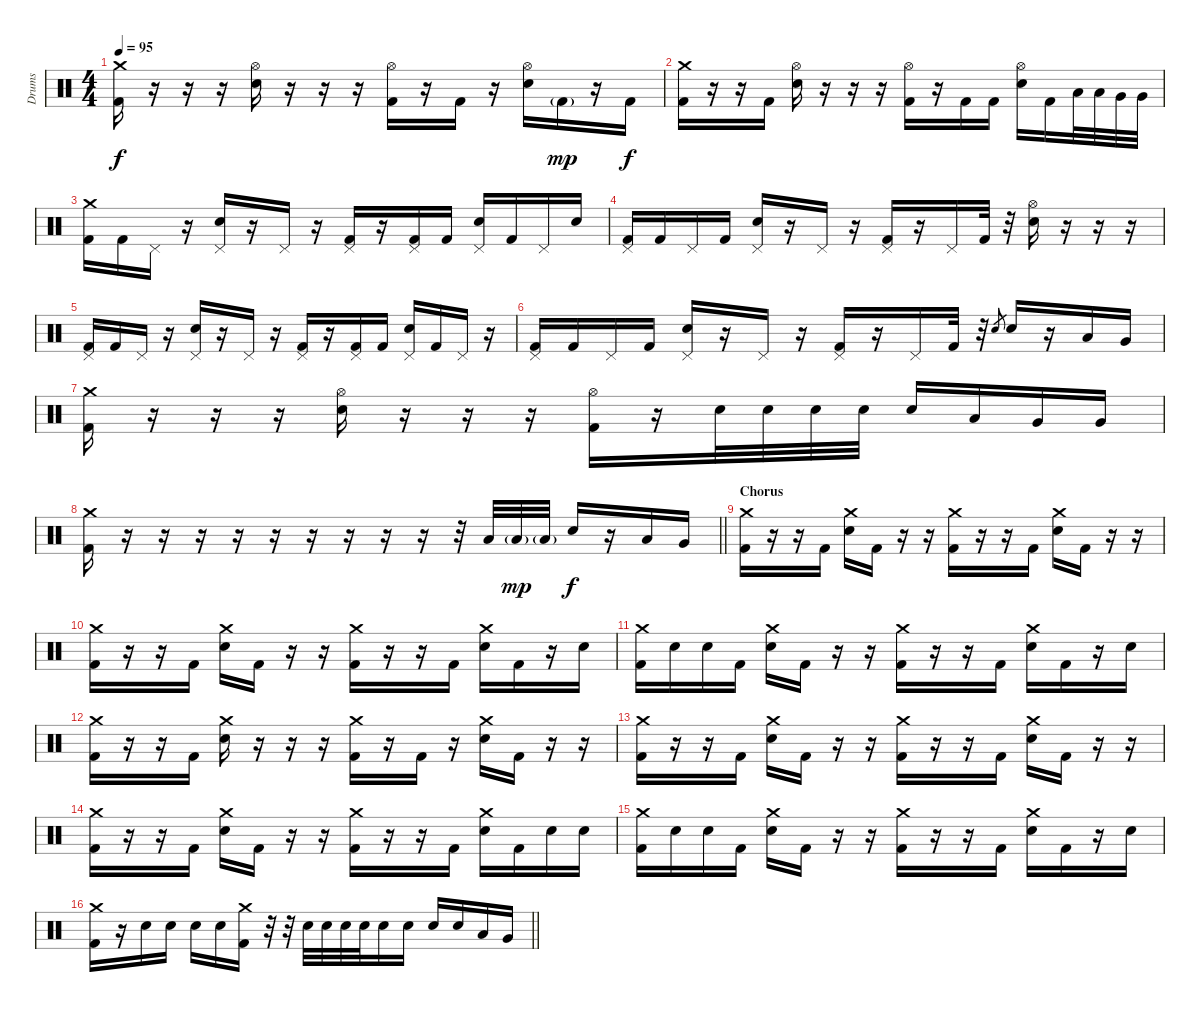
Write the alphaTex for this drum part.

\track ("Drums" "Drums") {instrument percussion}
\staff {score}
\articulation defaults
\ts (4 4)
\tempo 95
\clef neutral
\ks c
("Crash medium (hit)" "Kick (hit) 2").16{dy f} r.16 r.16 r.16 ("Hi-Hat (open)" "Electric Snare (hit)").16 r.16 r.16 r.16 ("Hi-Hat (open)" "Kick (hit) 2").16 r.16 "Kick (hit) 2".16 r.16 ("Hi-Hat (open)" "Electric Snare (hit)").16 "Kick (hit) 2"{g}.16{dy mp} r.16 "Kick (hit) 2".16{dy f} |
("Crash medium (hit)" "Kick (hit) 2").16 r.16 r.16 "Kick (hit) 2".16 ("Hi-Hat (open)" "Electric Snare (hit)").16 r.16 r.16 r.16 ("Hi-Hat (open)" "Kick (hit) 2").16 r.16 "Kick (hit) 2".16 "Kick (hit) 2".16 ("Hi-Hat (open)" "Electric Snare (hit)").16 "Kick (hit) 2".16 "Low Tom (hit)".32 "Low Tom (hit)".32 "Very Low Tom (hit)".32 "Very Low Tom (hit)".32 |
("Crash medium (hit)" "Kick (hit) 2").16 "Kick (hit) 2".16 "Pedal Hi-Hat (hit)".16 r.16 ("Pedal Hi-Hat (hit)" "Electric Snare (hit)").16 r.16 "Pedal Hi-Hat (hit)".16 r.16 ("Pedal Hi-Hat (hit)" "Kick (hit) 2").16 r.16 ("Pedal Hi-Hat (hit)" "Kick (hit) 2").16 "Kick (hit) 2".16 ("Pedal Hi-Hat (hit)" "Electric Snare (hit)").16 "Kick (hit) 2".16 "Pedal Hi-Hat (hit)".16 "Electric Snare (hit)".16 |
("Pedal Hi-Hat (hit)" "Kick (hit) 2").16 "Kick (hit) 2".16 "Pedal Hi-Hat (hit)".16 "Kick (hit) 2".16 ("Pedal Hi-Hat (hit)" "Electric Snare (hit)").16 r.16 "Pedal Hi-Hat (hit)".16 r.16 ("Pedal Hi-Hat (hit)" "Kick (hit) 2").16 r.16 "Pedal Hi-Hat (hit)".16 "Kick (hit) 2".32 r.32 ("Hi-Hat (open)" "Electric Snare (hit)").16 r.16 r.16 r.16 |
("Pedal Hi-Hat (hit)" "Kick (hit) 2").16 "Kick (hit) 2".16 "Pedal Hi-Hat (hit)".16 r.16 ("Pedal Hi-Hat (hit)" "Electric Snare (hit)").16 r.16 "Pedal Hi-Hat (hit)".16 r.16 ("Pedal Hi-Hat (hit)" "Kick (hit) 2").16 r.16 ("Pedal Hi-Hat (hit)" "Kick (hit) 2").16 "Kick (hit) 2".16 ("Pedal Hi-Hat (hit)" "Electric Snare (hit)").16 "Kick (hit) 2".16 "Pedal Hi-Hat (hit)".16 r.16 |
("Pedal Hi-Hat (hit)" "Kick (hit) 2").16 "Kick (hit) 2".16 "Pedal Hi-Hat (hit)".16 "Kick (hit) 2".16 ("Pedal Hi-Hat (hit)" "Electric Snare (hit)").16 r.16 "Pedal Hi-Hat (hit)".16 r.16 ("Pedal Hi-Hat (hit)" "Kick (hit) 2").16 r.16 "Pedal Hi-Hat (hit)".16 "Kick (hit) 2".32 r.32 "Electric Snare (hit)".8{gr} "Electric Snare (hit)".16 r.16 "Low Tom (hit)".16 "Very Low Tom (hit)".16 |
("Crash medium (hit)" "Kick (hit) 2").16 r.16 r.16 r.16 ("Hi-Hat (open)" "Electric Snare (hit)").16 r.16 r.16 r.16 ("Hi-Hat (open)" "Kick (hit) 2").16 r.16 "Electric Snare (hit)".32 "Electric Snare (hit)".32 "Electric Snare (hit)".32 "Electric Snare (hit)".32 "Electric Snare (hit)".16 "Low Tom (hit)".16 "Very Low Tom (hit)".16 "Very Low Tom (hit)".16 |
\barLineRight lightlight
("Crash medium (hit)" "Kick (hit) 2").16 r.16 r.16 r.16 r.16 r.16 r.16 r.16 r.16 r.16 r.32 "Low Tom (hit)".32 "Low Tom (hit)"{g}.32{dy mp} "Low Tom (hit)"{g}.32 "Electric Snare (hit)".16{dy f} r.16 "Low Tom (hit)".16 "Very Low Tom (hit)".16 |
\section ("" "Chorus")
("Crash medium (hit)" "Kick (hit) 2").16 r.16 r.16 "Kick (hit) 2".16 ("Crash medium (hit)" "Electric Snare (hit)").16 "Kick (hit) 2".16 r.16 r.16 ("Crash medium (hit)" "Kick (hit) 2").16 r.16 r.16 "Kick (hit) 2".16 ("Crash medium (hit)" "Electric Snare (hit)").16 "Kick (hit) 2".16 r.16 r.16 |
("Crash medium (hit)" "Kick (hit) 2").16 r.16 r.16 "Kick (hit) 2".16 ("Crash medium (hit)" "Electric Snare (hit)").16 "Kick (hit) 2".16 r.16 r.16 ("Crash medium (hit)" "Kick (hit) 2").16 r.16 r.16 "Kick (hit) 2".16 ("Crash medium (hit)" "Electric Snare (hit)").16 "Kick (hit) 2".16 r.16 "Electric Snare (hit)".16 |
("Crash medium (hit)" "Kick (hit) 2").16 "Electric Snare (hit)".16 "Electric Snare (hit)".16 "Kick (hit) 2".16 ("Crash medium (hit)" "Electric Snare (hit)").16 "Kick (hit) 2".16 r.16 r.16 ("Crash medium (hit)" "Kick (hit) 2").16 r.16 r.16 "Kick (hit) 2".16 ("Crash medium (hit)" "Electric Snare (hit)").16 "Kick (hit) 2".16 r.16 "Electric Snare (hit)".16 |
("Crash medium (hit)" "Kick (hit) 2").16 r.16 r.16 "Kick (hit) 2".16 ("Crash medium (hit)" "Electric Snare (hit)").16 r.16 r.16 r.16 ("Crash medium (hit)" "Kick (hit) 2").16 r.16 "Kick (hit) 2".16 r.16 ("Crash medium (hit)" "Electric Snare (hit)").16 "Kick (hit) 2".16 r.16 r.16 |
("Crash medium (hit)" "Kick (hit) 2").16 r.16 r.16 "Kick (hit) 2".16 ("Crash medium (hit)" "Electric Snare (hit)").16 "Kick (hit) 2".16 r.16 r.16 ("Crash medium (hit)" "Kick (hit) 2").16 r.16 r.16 "Kick (hit) 2".16 ("Crash medium (hit)" "Electric Snare (hit)").16 "Kick (hit) 2".16 r.16 r.16 |
("Crash medium (hit)" "Kick (hit) 2").16 r.16 r.16 "Kick (hit) 2".16 ("Crash medium (hit)" "Electric Snare (hit)").16 "Kick (hit) 2".16 r.16 r.16 ("Crash medium (hit)" "Kick (hit) 2").16 r.16 r.16 "Kick (hit) 2".16 ("Crash medium (hit)" "Electric Snare (hit)").16 "Kick (hit) 2".16 "Electric Snare (hit)".16 "Electric Snare (hit)".16 |
("Crash medium (hit)" "Kick (hit) 2").16 "Electric Snare (hit)".16 "Electric Snare (hit)".16 "Kick (hit) 2".16 ("Crash medium (hit)" "Electric Snare (hit)").16 "Kick (hit) 2".16 r.16 r.16 ("Crash medium (hit)" "Kick (hit) 2").16 r.16 r.16 "Kick (hit) 2".16 ("Crash medium (hit)" "Electric Snare (hit)").16 "Kick (hit) 2".16 r.16 "Electric Snare (hit)".16 |
\barLineRight lightlight
("Crash medium (hit)" "Kick (hit) 2").16 r.16 "Electric Snare (hit)".16 "Electric Snare (hit)".16 "Electric Snare (hit)".16 "Electric Snare (hit)".16 ("Crash medium (hit)" "Kick (hit) 2").16 r.32 r.32 "Electric Snare (hit)".32 "Electric Snare (hit)".32 "Electric Snare (hit)".32 "Electric Snare (hit)".32 "Electric Snare (hit)".16 "Electric Snare (hit)".16 "Electric Snare (hit)".16 "Electric Snare (hit)".16 "Low Tom (hit)".16 "Very Low Tom (hit)".16
